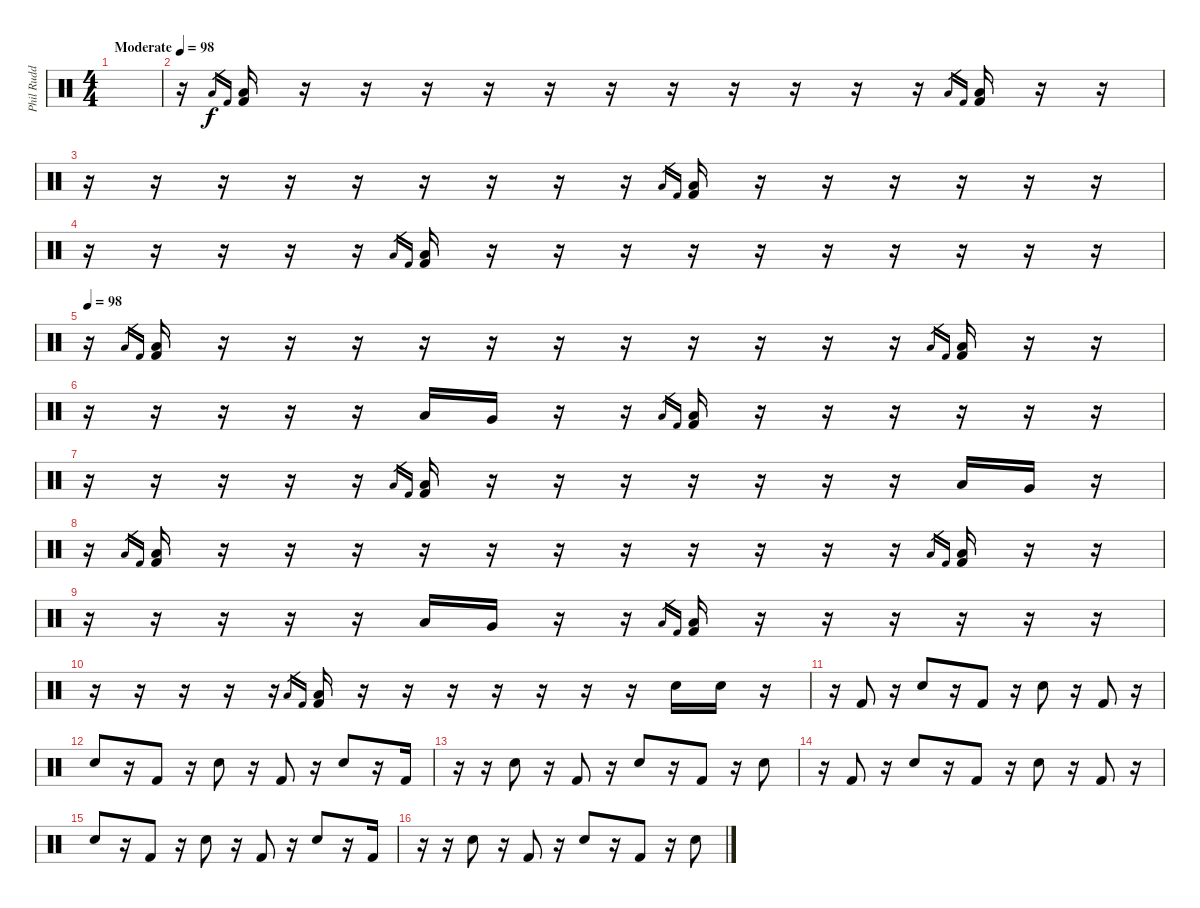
\track ("Phil Rudd" "Phil Rudd") {instrument percussion}
\staff {score}
\articulation defaults
\ts (4 4)
\tempo (98 "Moderate")
\clef neutral
\ks c
|
r.16 "Low Tom (hit)".16{gr} "Kick (hit) 2".16{gr} ("Low Tom (hit)" "Kick (hit) 2").16 r.16 r.16 r.16 r.16 r.16 r.16 r.16 r.16 r.16 r.16 r.16 "Low Tom (hit)".16{gr} "Kick (hit) 2".16{gr} ("Low Tom (hit)" "Kick (hit) 2").16 r.16 r.16 |
r.16 r.16 r.16 r.16 r.16 r.16 r.16 r.16 r.16 "Low Tom (hit)".16{gr} "Kick (hit) 2".16{gr} ("Low Tom (hit)" "Kick (hit) 2").16 r.16 r.16 r.16 r.16 r.16 r.16 |
r.16 r.16 r.16 r.16 r.16 "Low Tom (hit)".16{gr} "Kick (hit) 2".16{gr} ("Low Tom (hit)" "Kick (hit) 2").16 r.16 r.16 r.16 r.16 r.16 r.16 r.16 r.16 r.16 r.16 |
\tempo 98
r.16 "Low Tom (hit)".16{gr} "Kick (hit) 2".16{gr} ("Low Tom (hit)" "Kick (hit) 2").16 r.16 r.16 r.16 r.16 r.16 r.16 r.16 r.16 r.16 r.16 r.16 "Low Tom (hit)".16{gr} "Kick (hit) 2".16{gr} ("Low Tom (hit)" "Kick (hit) 2").16 r.16 r.16 |
r.16 r.16 r.16 r.16 r.16 "Low Tom (hit)".16 "Very Low Tom (hit)".16 r.16 r.16 "Low Tom (hit)".16{gr} "Kick (hit) 2".16{gr} ("Low Tom (hit)" "Kick (hit) 2").16 r.16 r.16 r.16 r.16 r.16 r.16 |
r.16 r.16 r.16 r.16 r.16 "Low Tom (hit)".16{gr} "Kick (hit) 2".16{gr} ("Low Tom (hit)" "Kick (hit) 2").16 r.16 r.16 r.16 r.16 r.16 r.16 r.16 "Low Tom (hit)".16 "Very Low Tom (hit)".16 r.16 |
r.16 "Low Tom (hit)".16{gr} "Kick (hit) 2".16{gr} ("Low Tom (hit)" "Kick (hit) 2").16 r.16 r.16 r.16 r.16 r.16 r.16 r.16 r.16 r.16 r.16 r.16 "Low Tom (hit)".16{gr} "Kick (hit) 2".16{gr} ("Low Tom (hit)" "Kick (hit) 2").16 r.16 r.16 |
r.16 r.16 r.16 r.16 r.16 "Low Tom (hit)".16 "Very Low Tom (hit)".16 r.16 r.16 "Low Tom (hit)".16{gr} "Kick (hit) 2".16{gr} ("Low Tom (hit)" "Kick (hit) 2").16 r.16 r.16 r.16 r.16 r.16 r.16 |
r.16 r.16 r.16 r.16 r.16 "Low Tom (hit)".16{gr} "Kick (hit) 2".16{gr} ("Low Tom (hit)" "Kick (hit) 2").16 r.16 r.16 r.16 r.16 r.16 r.16 r.16 "Snare (hit) 2".16 "Snare (hit) 2".16 r.16 |
r.16 "Kick (hit) 2".8 r.16 "Snare (hit) 2".8 r.16 "Kick (hit) 2".8 r.16 "Snare (hit) 2".8 r.16 "Kick (hit) 2".8 r.16 |
"Snare (hit) 2".8 r.16 "Kick (hit) 2".8 r.16 "Snare (hit) 2".8 r.16 "Kick (hit) 2".8 r.16 "Snare (hit) 2".8 r.16 "Kick (hit) 2".16 |
r.16 r.16 "Snare (hit) 2".8 r.16 "Kick (hit) 2".8 r.16 "Snare (hit) 2".8 r.16 "Kick (hit) 2".8 r.16 "Snare (hit) 2".8 |
r.16 "Kick (hit) 2".8 r.16 "Snare (hit) 2".8 r.16 "Kick (hit) 2".8 r.16 "Snare (hit) 2".8 r.16 "Kick (hit) 2".8 r.16 |
"Snare (hit) 2".8 r.16 "Kick (hit) 2".8 r.16 "Snare (hit) 2".8 r.16 "Kick (hit) 2".8 r.16 "Snare (hit) 2".8 r.16 "Kick (hit) 2".16 |
r.16 r.16 "Snare (hit) 2".8 r.16 "Kick (hit) 2".8 r.16 "Snare (hit) 2".8 r.16 "Kick (hit) 2".8 r.16 "Snare (hit) 2".8
